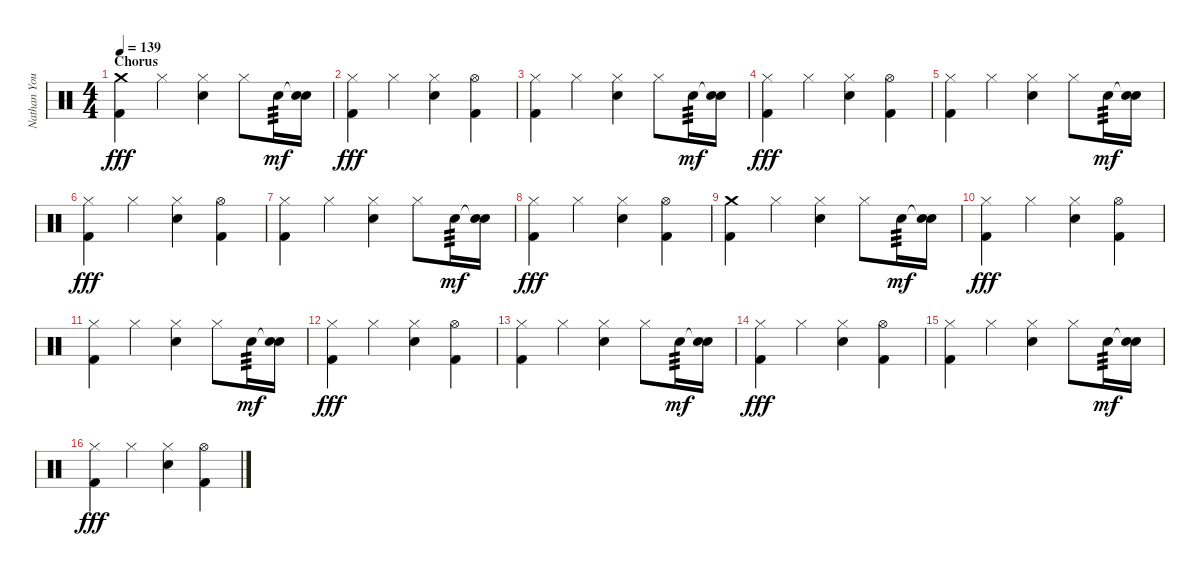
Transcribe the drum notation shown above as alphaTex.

\track ("Nathan Young" "Nathan You") {instrument percussion}
\staff {score}
\articulation defaults
\ts (4 4)
\section ("" "Chorus")
\tempo 139
\clef neutral
\ks c
("Crash medium (hit)" "Kick (hit) 2").4{dy fff} "Hi-Hat (closed)".4 ("Hi-Hat (closed)" "Electric Snare (hit)").4 "Hi-Hat (closed)".8 "Electric Snare (hit)".16{tp 3 dy mf} ("Snare (hit)"{t} "Electric Snare (hit)").16 |
("Hi-Hat (closed)" "Kick (hit) 2").4{dy fff} "Hi-Hat (closed)".4 ("Hi-Hat (closed)" "Electric Snare (hit)").4 ("Hi-Hat (open)" "Kick (hit) 2").4 |
("Hi-Hat (closed)" "Kick (hit) 2").4 "Hi-Hat (closed)".4 ("Hi-Hat (closed)" "Electric Snare (hit)").4 "Hi-Hat (closed)".8 "Electric Snare (hit)".16{tp 3 dy mf} ("Snare (hit)"{t} "Electric Snare (hit)").16 |
("Hi-Hat (closed)" "Kick (hit) 2").4{dy fff} "Hi-Hat (closed)".4 ("Hi-Hat (closed)" "Electric Snare (hit)").4 ("Hi-Hat (open)" "Kick (hit) 2").4 |
("Hi-Hat (closed)" "Kick (hit) 2").4 "Hi-Hat (closed)".4 ("Hi-Hat (closed)" "Electric Snare (hit)").4 "Hi-Hat (closed)".8 "Electric Snare (hit)".16{tp 3 dy mf} ("Snare (hit)"{t} "Electric Snare (hit)").16 |
("Hi-Hat (closed)" "Kick (hit) 2").4{dy fff} "Hi-Hat (closed)".4 ("Hi-Hat (closed)" "Electric Snare (hit)").4 ("Hi-Hat (open)" "Kick (hit) 2").4 |
("Hi-Hat (closed)" "Kick (hit) 2").4 "Hi-Hat (closed)".4 ("Hi-Hat (closed)" "Electric Snare (hit)").4 "Hi-Hat (closed)".8 "Electric Snare (hit)".16{tp 3 dy mf} ("Snare (hit)"{t} "Electric Snare (hit)").16 |
("Hi-Hat (closed)" "Kick (hit) 2").4{dy fff} "Hi-Hat (closed)".4 ("Hi-Hat (closed)" "Electric Snare (hit)").4 ("Hi-Hat (open)" "Kick (hit) 2").4 |
("Crash medium (hit)" "Kick (hit) 2").4 "Hi-Hat (closed)".4 ("Hi-Hat (closed)" "Electric Snare (hit)").4 "Hi-Hat (closed)".8 "Electric Snare (hit)".16{tp 3 dy mf} ("Snare (hit)"{t} "Electric Snare (hit)").16 |
("Hi-Hat (closed)" "Kick (hit) 2").4{dy fff} "Hi-Hat (closed)".4 ("Hi-Hat (closed)" "Electric Snare (hit)").4 ("Hi-Hat (open)" "Kick (hit) 2").4 |
("Hi-Hat (closed)" "Kick (hit) 2").4 "Hi-Hat (closed)".4 ("Hi-Hat (closed)" "Electric Snare (hit)").4 "Hi-Hat (closed)".8 "Electric Snare (hit)".16{tp 3 dy mf} ("Snare (hit)"{t} "Electric Snare (hit)").16 |
("Hi-Hat (closed)" "Kick (hit) 2").4{dy fff} "Hi-Hat (closed)".4 ("Hi-Hat (closed)" "Electric Snare (hit)").4 ("Hi-Hat (open)" "Kick (hit) 2").4 |
("Hi-Hat (closed)" "Kick (hit) 2").4 "Hi-Hat (closed)".4 ("Hi-Hat (closed)" "Electric Snare (hit)").4 "Hi-Hat (closed)".8 "Electric Snare (hit)".16{tp 3 dy mf} ("Snare (hit)"{t} "Electric Snare (hit)").16 |
("Hi-Hat (closed)" "Kick (hit) 2").4{dy fff} "Hi-Hat (closed)".4 ("Hi-Hat (closed)" "Electric Snare (hit)").4 ("Hi-Hat (open)" "Kick (hit) 2").4 |
("Hi-Hat (closed)" "Kick (hit) 2").4 "Hi-Hat (closed)".4 ("Hi-Hat (closed)" "Electric Snare (hit)").4 "Hi-Hat (closed)".8 "Electric Snare (hit)".16{tp 3 dy mf} ("Snare (hit)"{t} "Electric Snare (hit)").16 |
("Hi-Hat (closed)" "Kick (hit) 2").4{dy fff} "Hi-Hat (closed)".4 ("Hi-Hat (closed)" "Electric Snare (hit)").4 ("Hi-Hat (open)" "Kick (hit) 2").4
